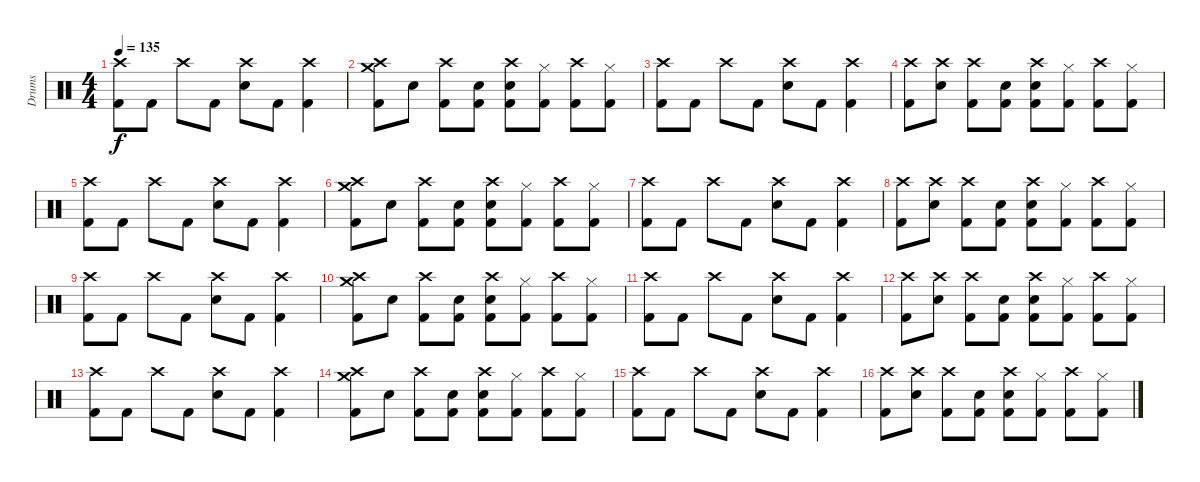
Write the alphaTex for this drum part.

\track ("Drums" "Drums") {instrument percussion}
\staff {score}
\articulation defaults
\ts (4 4)
\tempo 135
\clef neutral
\ks c
("Crash high (hit)" "Kick (hit) 2"{x}).8{dy f} "Kick (hit) 2"{x}.8 "Crash high (hit)".8 "Kick (hit) 2".8 ("Crash high (hit)" "Electric Snare (hit)").8 "Kick (hit) 2".8 ("Crash high (hit)" "Kick (hit) 2"{x}).4 |
("Crash high (hit)" "Crash medium (hit)" "Kick (hit) 2").8 "Snare (hit)"{x}.8 ("Crash high (hit)" "Kick (hit) 2"{x}).8 ("Electric Snare (hit)"{x} "Kick (hit) 2").8 ("Crash high (hit)" "Electric Snare (hit)" "Kick (hit) 2"{x}).8 ("Hi-Hat (closed)"{x} "Kick (hit) 2"{x}).8 ("Crash high (hit)" "Kick (hit) 2").8 ("Hi-Hat (closed)"{x} "Kick (hit) 2").8 |
("Crash high (hit)" "Kick (hit) 2"{x}).8 "Kick (hit) 2"{x}.8 "Crash high (hit)".8 "Kick (hit) 2".8 ("Crash high (hit)" "Electric Snare (hit)").8 "Kick (hit) 2".8 ("Crash high (hit)" "Kick (hit) 2"{x}).4 |
("Crash high (hit)" "Kick (hit) 2").8 ("Crash high (hit)"{x} "Snare (hit)"{x}).8 ("Crash high (hit)" "Kick (hit) 2"{x}).8 ("Electric Snare (hit)"{x} "Kick (hit) 2").8 ("Crash high (hit)" "Electric Snare (hit)" "Kick (hit) 2"{x}).8 ("Hi-Hat (closed)"{x} "Kick (hit) 2"{x}).8 ("Crash high (hit)" "Kick (hit) 2").8 ("Hi-Hat (closed)"{x} "Kick (hit) 2").8 |
("Crash high (hit)" "Kick (hit) 2"{x}).8 "Kick (hit) 2"{x}.8 "Crash high (hit)".8 "Kick (hit) 2".8 ("Crash high (hit)" "Electric Snare (hit)").8 "Kick (hit) 2".8 ("Crash high (hit)" "Kick (hit) 2"{x}).4 |
("Crash high (hit)" "Crash medium (hit)" "Kick (hit) 2").8 "Snare (hit)"{x}.8 ("Crash high (hit)" "Kick (hit) 2"{x}).8 ("Electric Snare (hit)"{x} "Kick (hit) 2").8 ("Crash high (hit)" "Electric Snare (hit)" "Kick (hit) 2"{x}).8 ("Hi-Hat (closed)"{x} "Kick (hit) 2"{x}).8 ("Crash high (hit)" "Kick (hit) 2").8 ("Hi-Hat (closed)"{x} "Kick (hit) 2").8 |
("Crash high (hit)" "Kick (hit) 2"{x}).8 "Kick (hit) 2"{x}.8 "Crash high (hit)".8 "Kick (hit) 2".8 ("Crash high (hit)" "Electric Snare (hit)").8 "Kick (hit) 2".8 ("Crash high (hit)" "Kick (hit) 2"{x}).4 |
("Crash high (hit)" "Kick (hit) 2").8 ("Crash high (hit)"{x} "Snare (hit)"{x}).8 ("Crash high (hit)" "Kick (hit) 2"{x}).8 ("Electric Snare (hit)"{x} "Kick (hit) 2").8 ("Crash high (hit)" "Electric Snare (hit)" "Kick (hit) 2"{x}).8 ("Hi-Hat (closed)"{x} "Kick (hit) 2"{x}).8 ("Crash high (hit)" "Kick (hit) 2").8 ("Hi-Hat (closed)"{x} "Kick (hit) 2").8 |
("Crash high (hit)" "Kick (hit) 2"{x}).8 "Kick (hit) 2"{x}.8 "Crash high (hit)".8 "Kick (hit) 2".8 ("Crash high (hit)" "Electric Snare (hit)").8 "Kick (hit) 2".8 ("Crash high (hit)" "Kick (hit) 2"{x}).4 |
("Crash high (hit)" "Crash medium (hit)" "Kick (hit) 2").8 "Snare (hit)"{x}.8 ("Crash high (hit)" "Kick (hit) 2"{x}).8 ("Electric Snare (hit)"{x} "Kick (hit) 2").8 ("Crash high (hit)" "Electric Snare (hit)" "Kick (hit) 2"{x}).8 ("Hi-Hat (closed)"{x} "Kick (hit) 2"{x}).8 ("Crash high (hit)" "Kick (hit) 2").8 ("Hi-Hat (closed)"{x} "Kick (hit) 2").8 |
("Crash high (hit)" "Kick (hit) 2"{x}).8 "Kick (hit) 2"{x}.8 "Crash high (hit)".8 "Kick (hit) 2".8 ("Crash high (hit)" "Electric Snare (hit)").8 "Kick (hit) 2".8 ("Crash high (hit)" "Kick (hit) 2"{x}).4 |
("Crash high (hit)" "Kick (hit) 2").8 ("Crash high (hit)"{x} "Snare (hit)"{x}).8 ("Crash high (hit)" "Kick (hit) 2"{x}).8 ("Electric Snare (hit)"{x} "Kick (hit) 2").8 ("Crash high (hit)" "Electric Snare (hit)" "Kick (hit) 2"{x}).8 ("Hi-Hat (closed)"{x} "Kick (hit) 2"{x}).8 ("Crash high (hit)" "Kick (hit) 2").8 ("Hi-Hat (closed)"{x} "Kick (hit) 2").8 |
("Crash high (hit)" "Kick (hit) 2"{x}).8 "Kick (hit) 2"{x}.8 "Crash high (hit)".8 "Kick (hit) 2".8 ("Crash high (hit)" "Electric Snare (hit)").8 "Kick (hit) 2".8 ("Crash high (hit)" "Kick (hit) 2"{x}).4 |
("Crash high (hit)" "Crash medium (hit)" "Kick (hit) 2").8 "Snare (hit)"{x}.8 ("Crash high (hit)" "Kick (hit) 2"{x}).8 ("Electric Snare (hit)"{x} "Kick (hit) 2").8 ("Crash high (hit)" "Electric Snare (hit)" "Kick (hit) 2"{x}).8 ("Hi-Hat (closed)"{x} "Kick (hit) 2"{x}).8 ("Crash high (hit)" "Kick (hit) 2").8 ("Hi-Hat (closed)"{x} "Kick (hit) 2").8 |
("Crash high (hit)" "Kick (hit) 2"{x}).8 "Kick (hit) 2"{x}.8 "Crash high (hit)".8 "Kick (hit) 2".8 ("Crash high (hit)" "Electric Snare (hit)").8 "Kick (hit) 2".8 ("Crash high (hit)" "Kick (hit) 2"{x}).4 |
("Crash high (hit)" "Kick (hit) 2").8 ("Crash high (hit)"{x} "Snare (hit)"{x}).8 ("Crash high (hit)" "Kick (hit) 2"{x}).8 ("Electric Snare (hit)"{x} "Kick (hit) 2").8 ("Crash high (hit)" "Electric Snare (hit)" "Kick (hit) 2"{x}).8 ("Hi-Hat (closed)"{x} "Kick (hit) 2"{x}).8 ("Crash high (hit)" "Kick (hit) 2").8 ("Hi-Hat (closed)"{x} "Kick (hit) 2").8
